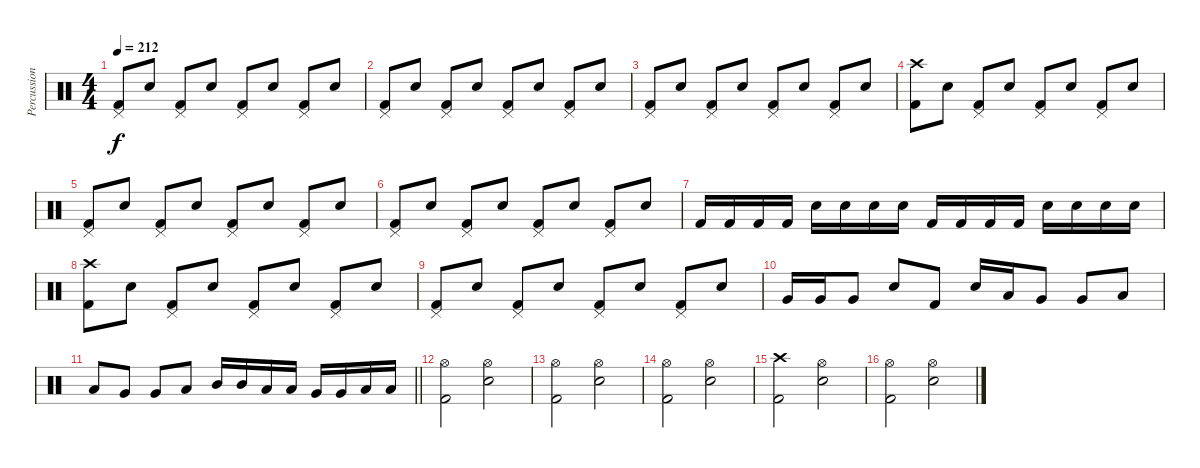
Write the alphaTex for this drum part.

\track ("Percussions" "Percussion") {instrument percussion}
\staff {score}
\articulation defaults
\ts (4 4)
\tempo 212
\clef neutral
\ks c
("Pedal Hi-Hat (hit)" "Kick (hit) 2").8{dy f} "Snare (hit) 2".8 ("Pedal Hi-Hat (hit)" "Kick (hit) 2").8 "Snare (hit) 2".8 ("Pedal Hi-Hat (hit)" "Kick (hit) 2").8 "Snare (hit) 2".8 ("Pedal Hi-Hat (hit)" "Kick (hit) 2").8 "Snare (hit) 2".8 |
("Pedal Hi-Hat (hit)" "Kick (hit) 2").8 "Snare (hit) 2".8 ("Pedal Hi-Hat (hit)" "Kick (hit) 2").8 "Snare (hit) 2".8 ("Pedal Hi-Hat (hit)" "Kick (hit) 2").8 "Snare (hit) 2".8 ("Pedal Hi-Hat (hit)" "Kick (hit) 2").8 "Snare (hit) 2".8 |
("Pedal Hi-Hat (hit)" "Kick (hit) 2").8 "Snare (hit) 2".8 ("Pedal Hi-Hat (hit)" "Kick (hit) 2").8 "Snare (hit) 2".8 ("Pedal Hi-Hat (hit)" "Kick (hit) 2").8 "Snare (hit) 2".8 ("Pedal Hi-Hat (hit)" "Kick (hit) 2").8 "Snare (hit) 2".8 |
("Crash high (hit)" "Kick (hit) 2").8 "Snare (hit) 2".8 ("Pedal Hi-Hat (hit)" "Kick (hit) 2").8 "Snare (hit) 2".8 ("Pedal Hi-Hat (hit)" "Kick (hit) 2").8 "Snare (hit) 2".8 ("Pedal Hi-Hat (hit)" "Kick (hit) 2").8 "Snare (hit) 2".8 |
("Pedal Hi-Hat (hit)" "Kick (hit) 2").8 "Snare (hit) 2".8 ("Pedal Hi-Hat (hit)" "Kick (hit) 2").8 "Snare (hit) 2".8 ("Pedal Hi-Hat (hit)" "Kick (hit) 2").8 "Snare (hit) 2".8 ("Pedal Hi-Hat (hit)" "Kick (hit) 2").8 "Snare (hit) 2".8 |
("Pedal Hi-Hat (hit)" "Kick (hit) 2").8 "Snare (hit) 2".8 ("Pedal Hi-Hat (hit)" "Kick (hit) 2").8 "Snare (hit) 2".8 ("Pedal Hi-Hat (hit)" "Kick (hit) 2").8 "Snare (hit) 2".8 ("Pedal Hi-Hat (hit)" "Kick (hit) 2").8 "Snare (hit) 2".8 |
"Kick (hit) 2".16 "Kick (hit) 2".16 "Kick (hit) 2".16 "Kick (hit) 2".16 "Snare (hit) 2".16 "Snare (hit) 2".16 "Snare (hit) 2".16 "Snare (hit) 2".16 "Kick (hit) 2".16 "Kick (hit) 2".16 "Kick (hit) 2".16 "Kick (hit) 2".16 "Snare (hit) 2".16 "Snare (hit) 2".16 "Snare (hit) 2".16 "Snare (hit) 2".16 |
("Crash high (hit)" "Kick (hit) 2").8 "Snare (hit) 2".8 ("Pedal Hi-Hat (hit)" "Kick (hit) 2").8 "Snare (hit) 2".8 ("Pedal Hi-Hat (hit)" "Kick (hit) 2").8 "Snare (hit) 2".8 ("Pedal Hi-Hat (hit)" "Kick (hit) 2").8 "Snare (hit) 2".8 |
("Pedal Hi-Hat (hit)" "Kick (hit) 2").8 "Snare (hit) 2".8 ("Pedal Hi-Hat (hit)" "Kick (hit) 2").8 "Snare (hit) 2".8 ("Pedal Hi-Hat (hit)" "Kick (hit) 2").8 "Snare (hit) 2".8 ("Pedal Hi-Hat (hit)" "Kick (hit) 2").8 "Snare (hit) 2".8 |
"Very Low Tom (hit)".16 "Very Low Tom (hit)".16 "Very Low Tom (hit)".8 "Snare (hit) 2".8 "Kick (hit) 2".8 "Snare (hit) 2".16 "Low Tom (hit)".16 "Very Low Tom (hit)".8 "Very Low Tom (hit)".8 "Low Floor Tom (hit)".8 |
\barLineRight lightlight "Low Tom (hit)".8 "Very Low Tom (hit)".8 "Very Low Tom (hit)".8 "Low Floor Tom (hit)".8 "Mid Tom (hit)".16 "Mid Tom (hit)".16 "Low Tom (hit)".16 "Low Tom (hit)".16 "Very Low Tom (hit)".16 "Very Low Tom (hit)".16 "Low Floor Tom (hit)".16 "Low Floor Tom (hit)".16
|
("Hi-Hat (open)" "Kick (hit) 2").2 ("Hi-Hat (open)" "Snare (hit) 2").2 |
("Hi-Hat (open)" "Kick (hit) 2").2 ("Hi-Hat (open)" "Snare (hit) 2").2 |
("Hi-Hat (open)" "Kick (hit) 2").2 ("Hi-Hat (open)" "Snare (hit) 2").2 |
("Crash high (hit)" "Kick (hit) 2").2 ("Hi-Hat (open)" "Snare (hit) 2").2 |
("Hi-Hat (open)" "Kick (hit) 2").2 ("Hi-Hat (open)" "Snare (hit) 2").2
